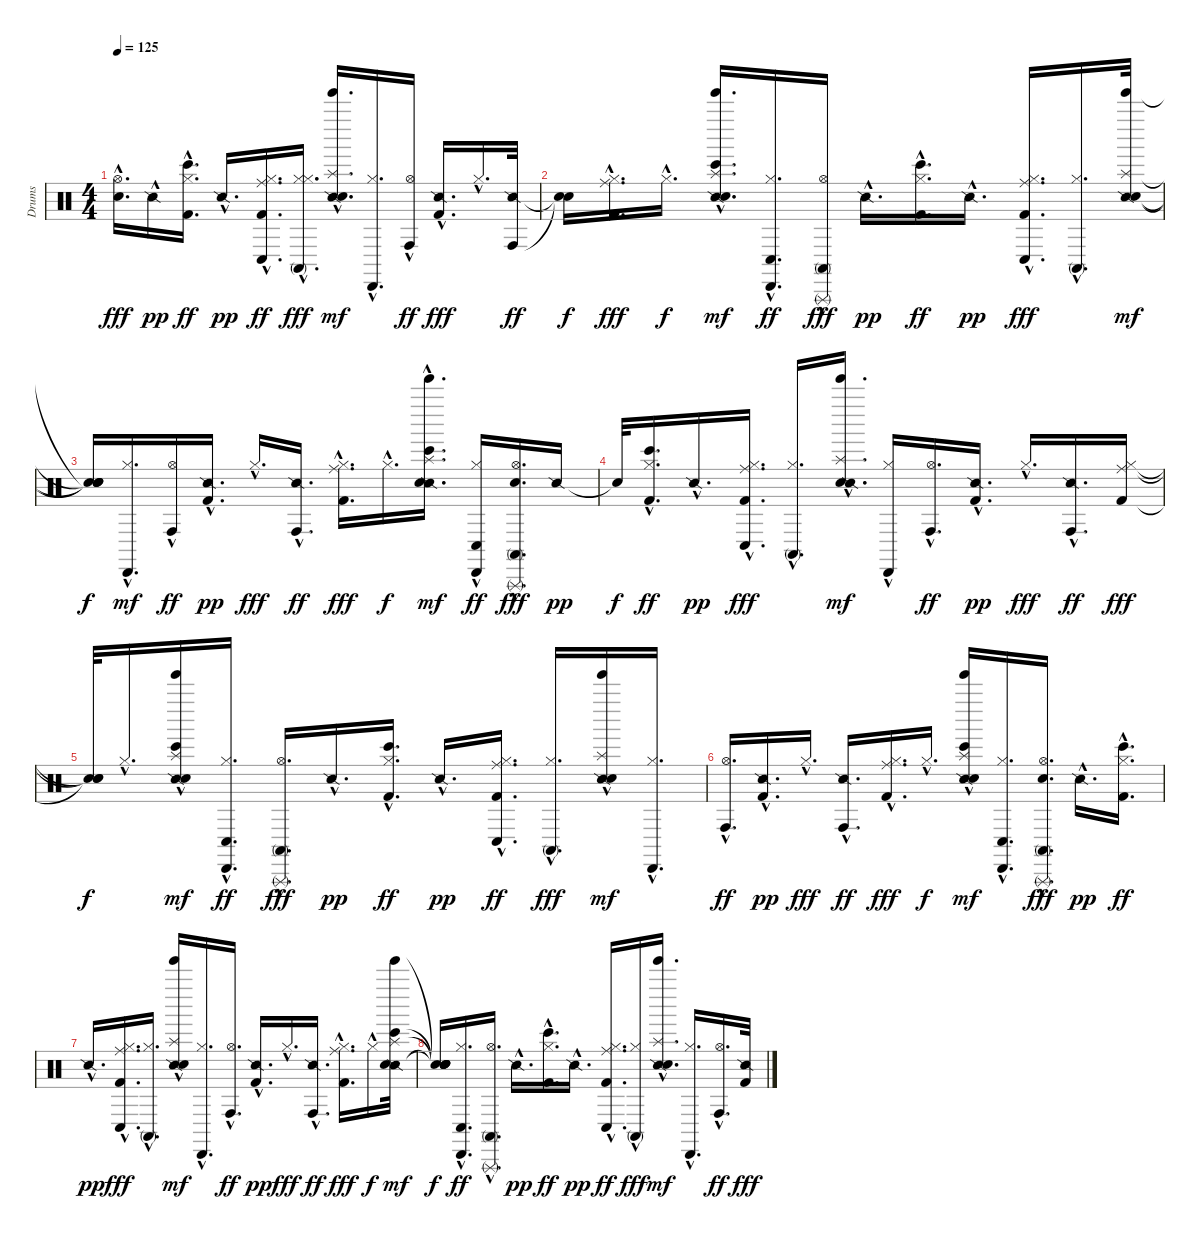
\track ("Drums" "Drums") {instrument percussion}
\staff {score}
\articulation defaults
\ts (4 4)
\tempo 125
\clef neutral
\ks c
("Hand Clap (hit)"{hac} "Hi-Hat (open)"{hac}).16{d dy fff} "Snare (side stick) 2"{hac}.16{dy pp} ("Hi-Hat (closed)"{hac} "Kick (hit) 2"{hac} "Bongo High (hit)"{hac}).16{d dy ff} "Snare (side stick) 2"{hac}.16{d dy pp} ("Ride (middle)"{hac} "Hi-Hat (closed)"{hac} "Kick (hit) 2"{hac} "Conga low (hit)"{hac}).16{d dy ff} ("Hi-Hat (closed)"{hac} "Hi-Hat (closed)"{hac} "Conga high (mute)"{hac}).16{d dy fff} ("Snare (side stick) 2"{hac} "Hand Clap (hit)"{hac} "Tinkle Bell (hit)"{hac} "Splash (hit)"{hac}).16{d dy mf} ("Hi-Hat (closed)"{hac} "Cabasa (hit)"{hac}).16{d} ("Hi-Hat (open)"{hac} "Conga high (hit)"{hac}).16{dy ff} ("Snare (side stick) 2"{hac} "Kick (hit) 2"{hac}).16{d dy fff} "Hi-Hat (closed)"{hac}.16{d} ("Snare (side stick) 2" "Conga high (hit)").32{dy ff} |
("Snare (hit)"{t} "Snare (hit)"{t}).16{dy f} ("Kick (hit) 2"{hac} "Ride (middle)"{hac} "Hi-Hat (closed)"{hac}).16{d dy fff} "Hi-Hat (closed)"{hac}.16{d dy f} ("Snare (side stick) 2"{hac} "Hand Clap (hit)"{hac} "Bongo High (hit)"{hac} "Tinkle Bell (hit)"{hac} "Splash (hit)"{hac}).16{d dy mf} ("Hi-Hat (closed)"{hac} "Cabasa (hit)"{hac} "Conga low (hit)"{hac}).16{d dy ff} ("Conga high (mute)"{hac} "Triangle (rnute)"{hac} "Hi-Hat (open)"{hac}).16{dy fff} "Snare (side stick) 2"{hac}.16{d dy pp} ("Hi-Hat (closed)"{hac} "Kick (hit) 2"{hac} "Bongo High (hit)"{hac}).16{d dy ff} "Snare (side stick) 2"{hac}.16{d dy pp} ("Hi-Hat (closed)"{hac} "Conga low (hit)"{hac} "Kick (hit) 2"{hac} "Ride (middle)"{hac}).16{d dy fff} ("Hi-Hat (closed)"{hac} "Conga high (mute)"{hac}).16{d} ("Snare (side stick) 2" "Hand Clap (hit)" "Tinkle Bell (hit)" "Splash (hit)").32{dy mf} |
("Snare (hit)"{t} "Snare (hit)"{t} "Snare (hit)"{t} "Snare (hit)"{t}).16{dy f} ("Cabasa (hit)"{hac} "Hi-Hat (closed)"{hac}).16{d dy mf} ("Hi-Hat (open)"{hac} "Conga high (hit)"{hac}).16{dy ff} ("Kick (hit) 2"{hac} "Snare (side stick) 2"{hac}).16{d dy pp} "Hi-Hat (closed)"{hac}.16{d dy fff} ("Snare (side stick) 2"{hac} "Conga high (hit)"{hac}).16{d dy ff} ("Ride (middle)"{hac} "Hi-Hat (closed)"{hac} "Kick (hit) 2"{hac}).16{d dy fff} "Hi-Hat (closed)"{hac}.16{d dy f} ("Snare (side stick) 2"{hac} "Hand Clap (hit)"{hac} "Bongo High (hit)"{hac} "Tinkle Bell (hit)"{hac} "Splash (hit)"{hac}).16{d dy mf} ("Hi-Hat (closed)"{hac} "Cabasa (hit)"{hac} "Conga low (hit)"{hac}).16{dy ff} ("Hand Clap (hit)"{hac} "Conga high (mute)"{hac} "Triangle (rnute)"{hac} "Hi-Hat (open)"{hac}).16{d dy fff} "Snare (side stick) 2".16{dy pp} |
"Snare (hit)"{t}.32{dy f} ("Hi-Hat (closed)"{hac} "Kick (hit) 2"{hac} "Bongo High (hit)"{hac}).16{d dy ff} "Snare (side stick) 2"{hac}.16{d dy pp} ("Ride (middle)"{hac} "Conga low (hit)"{hac} "Kick (hit) 2"{hac} "Hi-Hat (closed)"{hac}).16{d dy fff} ("Hi-Hat (closed)"{hac} "Conga high (mute)"{hac}).16{d} ("Hand Clap (hit)"{hac} "Snare (side stick) 2"{hac} "Tinkle Bell (hit)"{hac} "Splash (hit)"{hac}).16{d dy mf} ("Cabasa (hit)"{hac} "Hi-Hat (closed)"{hac}).16 ("Hi-Hat (open)"{hac} "Conga high (hit)"{hac}).16{d dy ff} ("Kick (hit) 2"{hac} "Snare (side stick) 2"{hac}).16{d dy pp} "Hi-Hat (closed)"{hac}.16{d dy fff} ("Snare (side stick) 2"{hac} "Conga high (hit)"{hac}).16{d dy ff} ("Ride (middle)" "Hi-Hat (closed)" "Kick (hit) 2").16{dy fff} |
("Snare (hit)"{t} "Snare (hit)"{t} "Snare (hit)"{t}).32{dy f} "Hi-Hat (closed)"{hac}.16{d} ("Snare (side stick) 2"{hac} "Hand Clap (hit)"{hac} "Bongo High (hit)"{hac} "Tinkle Bell (hit)"{hac} "Splash (hit)"{hac}).16{dy mf} ("Hi-Hat (closed)"{hac} "Cabasa (hit)"{hac} "Conga low (hit)"{hac}).16{d dy ff} ("Conga high (mute)"{hac} "Triangle (rnute)"{hac} "Hi-Hat (open)"{hac}).16{d dy fff} "Snare (side stick) 2"{hac}.16{d dy pp} ("Hi-Hat (closed)"{hac} "Kick (hit) 2"{hac} "Bongo High (hit)"{hac}).16{d dy ff} "Snare (side stick) 2"{hac}.16{d dy pp} ("Ride (middle)"{hac} "Kick (hit) 2"{hac} "Conga low (hit)"{hac} "Hi-Hat (closed)"{hac}).16{d dy ff} ("Hi-Hat (closed)"{hac} "Conga high (mute)"{hac}).16{d dy fff} ("Snare (side stick) 2"{hac} "Hand Clap (hit)"{hac} "Tinkle Bell (hit)"{hac} "Splash (hit)"{hac}).16{dy mf} ("Hi-Hat (closed)"{hac} "Cabasa (hit)"{hac}).16{d} |
("Hi-Hat (open)"{hac} "Conga high (hit)"{hac}).16{d dy ff} ("Kick (hit) 2"{hac} "Snare (side stick) 2"{hac}).16{d dy pp} "Hi-Hat (closed)"{hac}.16{d dy fff} ("Snare (side stick) 2"{hac} "Conga high (hit)"{hac}).16{d dy ff} ("Ride (middle)"{hac} "Hi-Hat (closed)"{hac} "Kick (hit) 2"{hac}).16{d dy fff} "Hi-Hat (closed)"{hac}.16{d dy f} ("Bongo High (hit)"{hac} "Snare (side stick) 2"{hac} "Hand Clap (hit)"{hac} "Tinkle Bell (hit)"{hac} "Splash (hit)"{hac}).16{dy mf} ("Cabasa (hit)"{hac} "Conga low (hit)"{hac} "Hi-Hat (closed)"{hac}).16{d} ("Hi-Hat (open)"{hac} "Conga high (mute)"{hac} "Triangle (rnute)"{hac} "Hand Clap (hit)"{hac}).16{d dy fff} "Snare (side stick) 2"{hac}.16{d dy pp} ("Hi-Hat (closed)"{hac} "Kick (hit) 2"{hac} "Bongo High (hit)"{hac}).16{d dy ff} |
"Snare (side stick) 2"{hac}.16{d dy pp} ("Hi-Hat (closed)"{hac} "Conga low (hit)"{hac} "Kick (hit) 2"{hac} "Ride (middle)"{hac}).16{d dy fff} ("Hi-Hat (closed)"{hac} "Conga high (mute)"{hac}).16{d} ("Snare (side stick) 2"{hac} "Hand Clap (hit)"{hac} "Tinkle Bell (hit)"{hac} "Splash (hit)"{hac}).16{dy mf} ("Cabasa (hit)"{hac} "Hi-Hat (closed)"{hac}).16{d} ("Hi-Hat (open)"{hac} "Conga high (hit)"{hac}).16{d dy ff} ("Kick (hit) 2"{hac} "Snare (side stick) 2"{hac}).16{d dy pp} "Hi-Hat (closed)"{hac}.16{d dy fff} ("Snare (side stick) 2"{hac} "Conga high (hit)"{hac}).16{d dy ff} ("Kick (hit) 2"{hac} "Hi-Hat (closed)"{hac} "Ride (middle)"{hac}).16{d dy fff} "Hi-Hat (closed)"{hac}.16{dy f} ("Snare (side stick) 2" "Hand Clap (hit)" "Bongo High (hit)" "Tinkle Bell (hit)" "Splash (hit)").32{dy mf} |
("Snare (hit)"{t} "Snare (hit)"{t} "Snare (hit)"{t} "Snare (hit)"{t} "Snare (hit)"{t}).16{dy f} ("Hi-Hat (closed)"{hac} "Cabasa (hit)"{hac} "Conga low (hit)"{hac}).16{d dy ff} ("Hi-Hat (open)"{hac} "Conga high (mute)"{hac} "Triangle (rnute)"{hac}).16{d} "Snare (side stick) 2"{hac}.16{d dy pp} ("Kick (hit) 2"{hac} "Hi-Hat (closed)"{hac} "Bongo High (hit)"{hac}).16{d dy ff} "Snare (side stick) 2"{hac}.16{d dy pp} ("Hi-Hat (closed)"{hac} "Ride (middle)"{hac} "Kick (hit) 2"{hac} "Conga low (hit)"{hac}).16{d dy ff} ("Hi-Hat (closed)"{hac} "Conga high (mute)"{hac}).16{dy fff} ("Snare (side stick) 2"{hac} "Hand Clap (hit)"{hac} "Tinkle Bell (hit)"{hac} "Splash (hit)"{hac}).16{d dy mf} ("Hi-Hat (closed)"{hac} "Cabasa (hit)"{hac}).16{d} ("Hi-Hat (open)"{hac} "Conga high (hit)"{hac}).16{d dy ff} ("Snare (side stick) 2" "Kick (hit) 2").32{dy fff}
